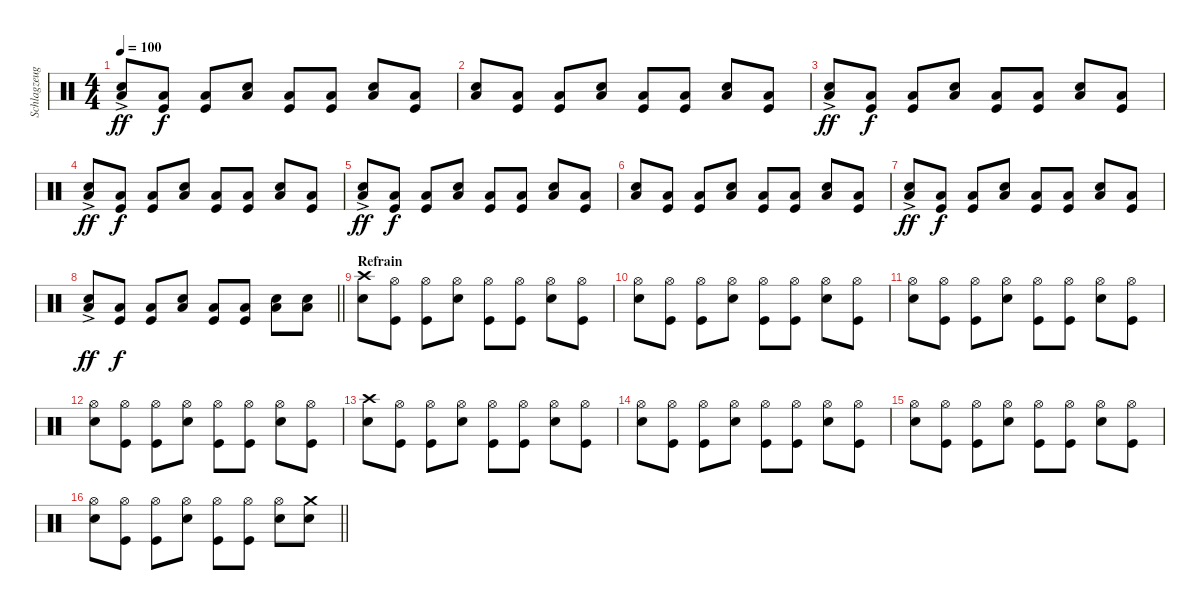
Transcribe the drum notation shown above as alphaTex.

\track ("Schlagzeug" "Schlagzeug") {instrument percussion}
\staff {score}
\articulation defaults
\ts (4 4)
\tempo 100
\clef neutral
\ks c
("Snare (hit) 2"{ac} "Low Floor Tom (hit)"{ac}).8{dy ff} ("Low Floor Tom (hit)" "Kick (hit)").8{dy f} ("Low Floor Tom (hit)" "Kick (hit)").8 ("Snare (hit) 2" "Low Floor Tom (hit)").8 ("Low Floor Tom (hit)" "Kick (hit)").8 ("Low Floor Tom (hit)" "Kick (hit)").8 ("Snare (hit) 2" "Low Floor Tom (hit)").8 ("Low Floor Tom (hit)" "Kick (hit)").8 |
("Snare (hit) 2" "Low Floor Tom (hit)").8 ("Low Floor Tom (hit)" "Kick (hit)").8 ("Low Floor Tom (hit)" "Kick (hit)").8 ("Snare (hit) 2" "Low Floor Tom (hit)").8 ("Low Floor Tom (hit)" "Kick (hit)").8 ("Low Floor Tom (hit)" "Kick (hit)").8 ("Snare (hit) 2" "Low Floor Tom (hit)").8 ("Low Floor Tom (hit)" "Kick (hit)").8 |
("Snare (hit) 2"{ac} "Low Floor Tom (hit)"{ac}).8{dy ff} ("Low Floor Tom (hit)" "Kick (hit)").8{dy f} ("Low Floor Tom (hit)" "Kick (hit)").8 ("Snare (hit) 2" "Low Floor Tom (hit)").8 ("Low Floor Tom (hit)" "Kick (hit)").8 ("Low Floor Tom (hit)" "Kick (hit)").8 ("Snare (hit) 2" "Low Floor Tom (hit)").8 ("Low Floor Tom (hit)" "Kick (hit)").8 |
("Snare (hit) 2"{ac} "Low Floor Tom (hit)"{ac}).8{dy ff} ("Low Floor Tom (hit)" "Kick (hit)").8{dy f} ("Low Floor Tom (hit)" "Kick (hit)").8 ("Snare (hit) 2" "Low Floor Tom (hit)").8 ("Low Floor Tom (hit)" "Kick (hit)").8 ("Low Floor Tom (hit)" "Kick (hit)").8 ("Snare (hit) 2" "Low Floor Tom (hit)").8 ("Low Floor Tom (hit)" "Kick (hit)").8 |
("Snare (hit) 2"{ac} "Low Floor Tom (hit)"{ac}).8{dy ff} ("Low Floor Tom (hit)" "Kick (hit)").8{dy f} ("Low Floor Tom (hit)" "Kick (hit)").8 ("Snare (hit) 2" "Low Floor Tom (hit)").8 ("Low Floor Tom (hit)" "Kick (hit)").8 ("Low Floor Tom (hit)" "Kick (hit)").8 ("Snare (hit) 2" "Low Floor Tom (hit)").8 ("Low Floor Tom (hit)" "Kick (hit)").8 |
("Snare (hit) 2" "Low Floor Tom (hit)").8 ("Low Floor Tom (hit)" "Kick (hit)").8 ("Low Floor Tom (hit)" "Kick (hit)").8 ("Snare (hit) 2" "Low Floor Tom (hit)").8 ("Low Floor Tom (hit)" "Kick (hit)").8 ("Low Floor Tom (hit)" "Kick (hit)").8 ("Snare (hit) 2" "Low Floor Tom (hit)").8 ("Low Floor Tom (hit)" "Kick (hit)").8 |
("Snare (hit) 2"{ac} "Low Floor Tom (hit)"{ac}).8{dy ff} ("Low Floor Tom (hit)" "Kick (hit)").8{dy f} ("Low Floor Tom (hit)" "Kick (hit)").8 ("Snare (hit) 2" "Low Floor Tom (hit)").8 ("Low Floor Tom (hit)" "Kick (hit)").8 ("Low Floor Tom (hit)" "Kick (hit)").8 ("Snare (hit) 2" "Low Floor Tom (hit)").8 ("Low Floor Tom (hit)" "Kick (hit)").8 |
\barLineRight lightlight
("Snare (hit) 2"{ac} "Low Floor Tom (hit)"{ac}).8{dy ff} ("Low Floor Tom (hit)" "Kick (hit)").8{dy f} ("Low Floor Tom (hit)" "Kick (hit)").8 ("Snare (hit) 2" "Low Floor Tom (hit)").8 ("Low Floor Tom (hit)" "Kick (hit)").8 ("Low Floor Tom (hit)" "Kick (hit)").8 ("Snare (hit) 2" "Low Floor Tom (hit)").8 ("Snare (hit) 2" "Low Floor Tom (hit)").8 |
\section ("" "Refrain")
("Crash high (hit)" "Snare (hit) 2").8 ("Hi-Hat (open)" "Kick (hit)").8 ("Hi-Hat (open)" "Kick (hit)").8 ("Hi-Hat (open)" "Snare (hit) 2").8 ("Hi-Hat (open)" "Kick (hit)").8 ("Hi-Hat (open)" "Kick (hit)").8 ("Hi-Hat (open)" "Snare (hit) 2").8 ("Hi-Hat (open)" "Kick (hit)").8 |
("Hi-Hat (open)" "Snare (hit) 2").8 ("Hi-Hat (open)" "Kick (hit)").8 ("Hi-Hat (open)" "Kick (hit)").8 ("Hi-Hat (open)" "Snare (hit) 2").8 ("Hi-Hat (open)" "Kick (hit)").8 ("Hi-Hat (open)" "Kick (hit)").8 ("Hi-Hat (open)" "Snare (hit) 2").8 ("Hi-Hat (open)" "Kick (hit)").8 |
("Hi-Hat (open)" "Snare (hit) 2").8 ("Hi-Hat (open)" "Kick (hit)").8 ("Hi-Hat (open)" "Kick (hit)").8 ("Hi-Hat (open)" "Snare (hit) 2").8 ("Hi-Hat (open)" "Kick (hit)").8 ("Hi-Hat (open)" "Kick (hit)").8 ("Hi-Hat (open)" "Snare (hit) 2").8 ("Hi-Hat (open)" "Kick (hit)").8 |
("Hi-Hat (open)" "Snare (hit) 2").8 ("Hi-Hat (open)" "Kick (hit)").8 ("Hi-Hat (open)" "Kick (hit)").8 ("Hi-Hat (open)" "Snare (hit) 2").8 ("Hi-Hat (open)" "Kick (hit)").8 ("Hi-Hat (open)" "Kick (hit)").8 ("Hi-Hat (open)" "Snare (hit) 2").8 ("Hi-Hat (open)" "Kick (hit)").8 |
("Crash high (hit)" "Snare (hit) 2").8 ("Hi-Hat (open)" "Kick (hit)").8 ("Hi-Hat (open)" "Kick (hit)").8 ("Hi-Hat (open)" "Snare (hit) 2").8 ("Hi-Hat (open)" "Kick (hit)").8 ("Hi-Hat (open)" "Kick (hit)").8 ("Hi-Hat (open)" "Snare (hit) 2").8 ("Hi-Hat (open)" "Kick (hit)").8 |
("Hi-Hat (open)" "Snare (hit) 2").8 ("Hi-Hat (open)" "Kick (hit)").8 ("Hi-Hat (open)" "Kick (hit)").8 ("Hi-Hat (open)" "Snare (hit) 2").8 ("Hi-Hat (open)" "Kick (hit)").8 ("Hi-Hat (open)" "Kick (hit)").8 ("Hi-Hat (open)" "Snare (hit) 2").8 ("Hi-Hat (open)" "Kick (hit)").8 |
("Hi-Hat (open)" "Snare (hit) 2").8 ("Hi-Hat (open)" "Kick (hit)").8 ("Hi-Hat (open)" "Kick (hit)").8 ("Hi-Hat (open)" "Snare (hit) 2").8 ("Hi-Hat (open)" "Kick (hit)").8 ("Hi-Hat (open)" "Kick (hit)").8 ("Hi-Hat (open)" "Snare (hit) 2").8 ("Hi-Hat (open)" "Kick (hit)").8 |
\barLineRight lightlight
("Hi-Hat (open)" "Snare (hit) 2").8 ("Hi-Hat (open)" "Kick (hit)").8 ("Hi-Hat (open)" "Kick (hit)").8 ("Hi-Hat (open)" "Snare (hit) 2").8 ("Hi-Hat (open)" "Kick (hit)").8 ("Hi-Hat (open)" "Kick (hit)").8 ("Hi-Hat (open)" "Snare (hit) 2").8 ("Crash medium (hit)" "Snare (hit) 2").8
